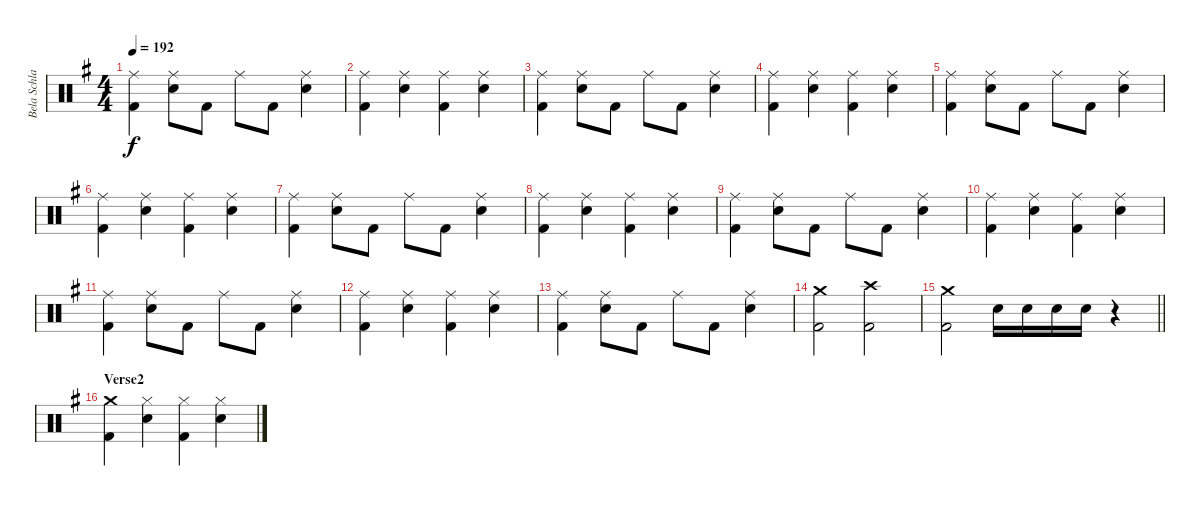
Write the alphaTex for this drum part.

\track ("Bela Schlagzeug" "Bela Schla") {instrument percussion}
\staff {score}
\articulation defaults
\ts (4 4)
\tempo 192
\clef neutral
\ks g
("Ride (middle)" "Kick (hit) 2").4{dy f} ("Ride (middle)" "Electric Snare (hit)").8 "Kick (hit) 2".8 "Ride (middle)".8 "Kick (hit) 2".8 ("Ride (middle)" "Electric Snare (hit)").4 |
("Ride (middle)" "Kick (hit) 2").4 ("Ride (middle)" "Electric Snare (hit)").4 ("Ride (middle)" "Kick (hit) 2").4 ("Ride (middle)" "Electric Snare (hit)").4 |
("Ride (middle)" "Kick (hit) 2").4 ("Ride (middle)" "Electric Snare (hit)").8 "Kick (hit) 2".8 "Ride (middle)".8 "Kick (hit) 2".8 ("Ride (middle)" "Electric Snare (hit)").4 |
("Ride (middle)" "Kick (hit) 2").4 ("Ride (middle)" "Electric Snare (hit)").4 ("Ride (middle)" "Kick (hit) 2").4 ("Ride (middle)" "Electric Snare (hit)").4 |
("Ride (middle)" "Kick (hit) 2").4 ("Ride (middle)" "Electric Snare (hit)").8 "Kick (hit) 2".8 "Ride (middle)".8 "Kick (hit) 2".8 ("Ride (middle)" "Electric Snare (hit)").4 |
("Ride (middle)" "Kick (hit) 2").4 ("Ride (middle)" "Electric Snare (hit)").4 ("Ride (middle)" "Kick (hit) 2").4 ("Ride (middle)" "Electric Snare (hit)").4 |
("Ride (middle)" "Kick (hit) 2").4 ("Ride (middle)" "Electric Snare (hit)").8 "Kick (hit) 2".8 "Ride (middle)".8 "Kick (hit) 2".8 ("Ride (middle)" "Electric Snare (hit)").4 |
("Ride (middle)" "Kick (hit) 2").4 ("Ride (middle)" "Electric Snare (hit)").4 ("Ride (middle)" "Kick (hit) 2").4 ("Ride (middle)" "Electric Snare (hit)").4 |
("Ride (middle)" "Kick (hit) 2").4 ("Ride (middle)" "Electric Snare (hit)").8 "Kick (hit) 2".8 "Ride (middle)".8 "Kick (hit) 2".8 ("Ride (middle)" "Electric Snare (hit)").4 |
("Ride (middle)" "Kick (hit) 2").4 ("Ride (middle)" "Electric Snare (hit)").4 ("Ride (middle)" "Kick (hit) 2").4 ("Ride (middle)" "Electric Snare (hit)").4 |
("Ride (middle)" "Kick (hit) 2").4 ("Ride (middle)" "Electric Snare (hit)").8 "Kick (hit) 2".8 "Ride (middle)".8 "Kick (hit) 2".8 ("Ride (middle)" "Electric Snare (hit)").4 |
("Ride (middle)" "Kick (hit) 2").4 ("Ride (middle)" "Electric Snare (hit)").4 ("Ride (middle)" "Kick (hit) 2").4 ("Ride (middle)" "Electric Snare (hit)").4 |
("Ride (middle)" "Kick (hit) 2").4 ("Ride (middle)" "Electric Snare (hit)").8 "Kick (hit) 2".8 "Ride (middle)".8 "Kick (hit) 2".8 ("Ride (middle)" "Electric Snare (hit)").4 |
("Crash medium (hit)" "Kick (hit) 2").2 ("Crash high (hit)" "Kick (hit) 2").2 |
\barLineRight lightlight
("Crash medium (hit)" "Kick (hit) 2").2 "Electric Snare (hit)".16 "Electric Snare (hit)".16 "Electric Snare (hit)".16 "Electric Snare (hit)".16 r.4 |
\section ("" "Verse2")
("Crash medium (hit)" "Kick (hit) 2").4 ("Hi-Hat (closed)" "Electric Snare (hit)").4 ("Hi-Hat (closed)" "Kick (hit) 2").4 ("Hi-Hat (closed)" "Electric Snare (hit)").4
